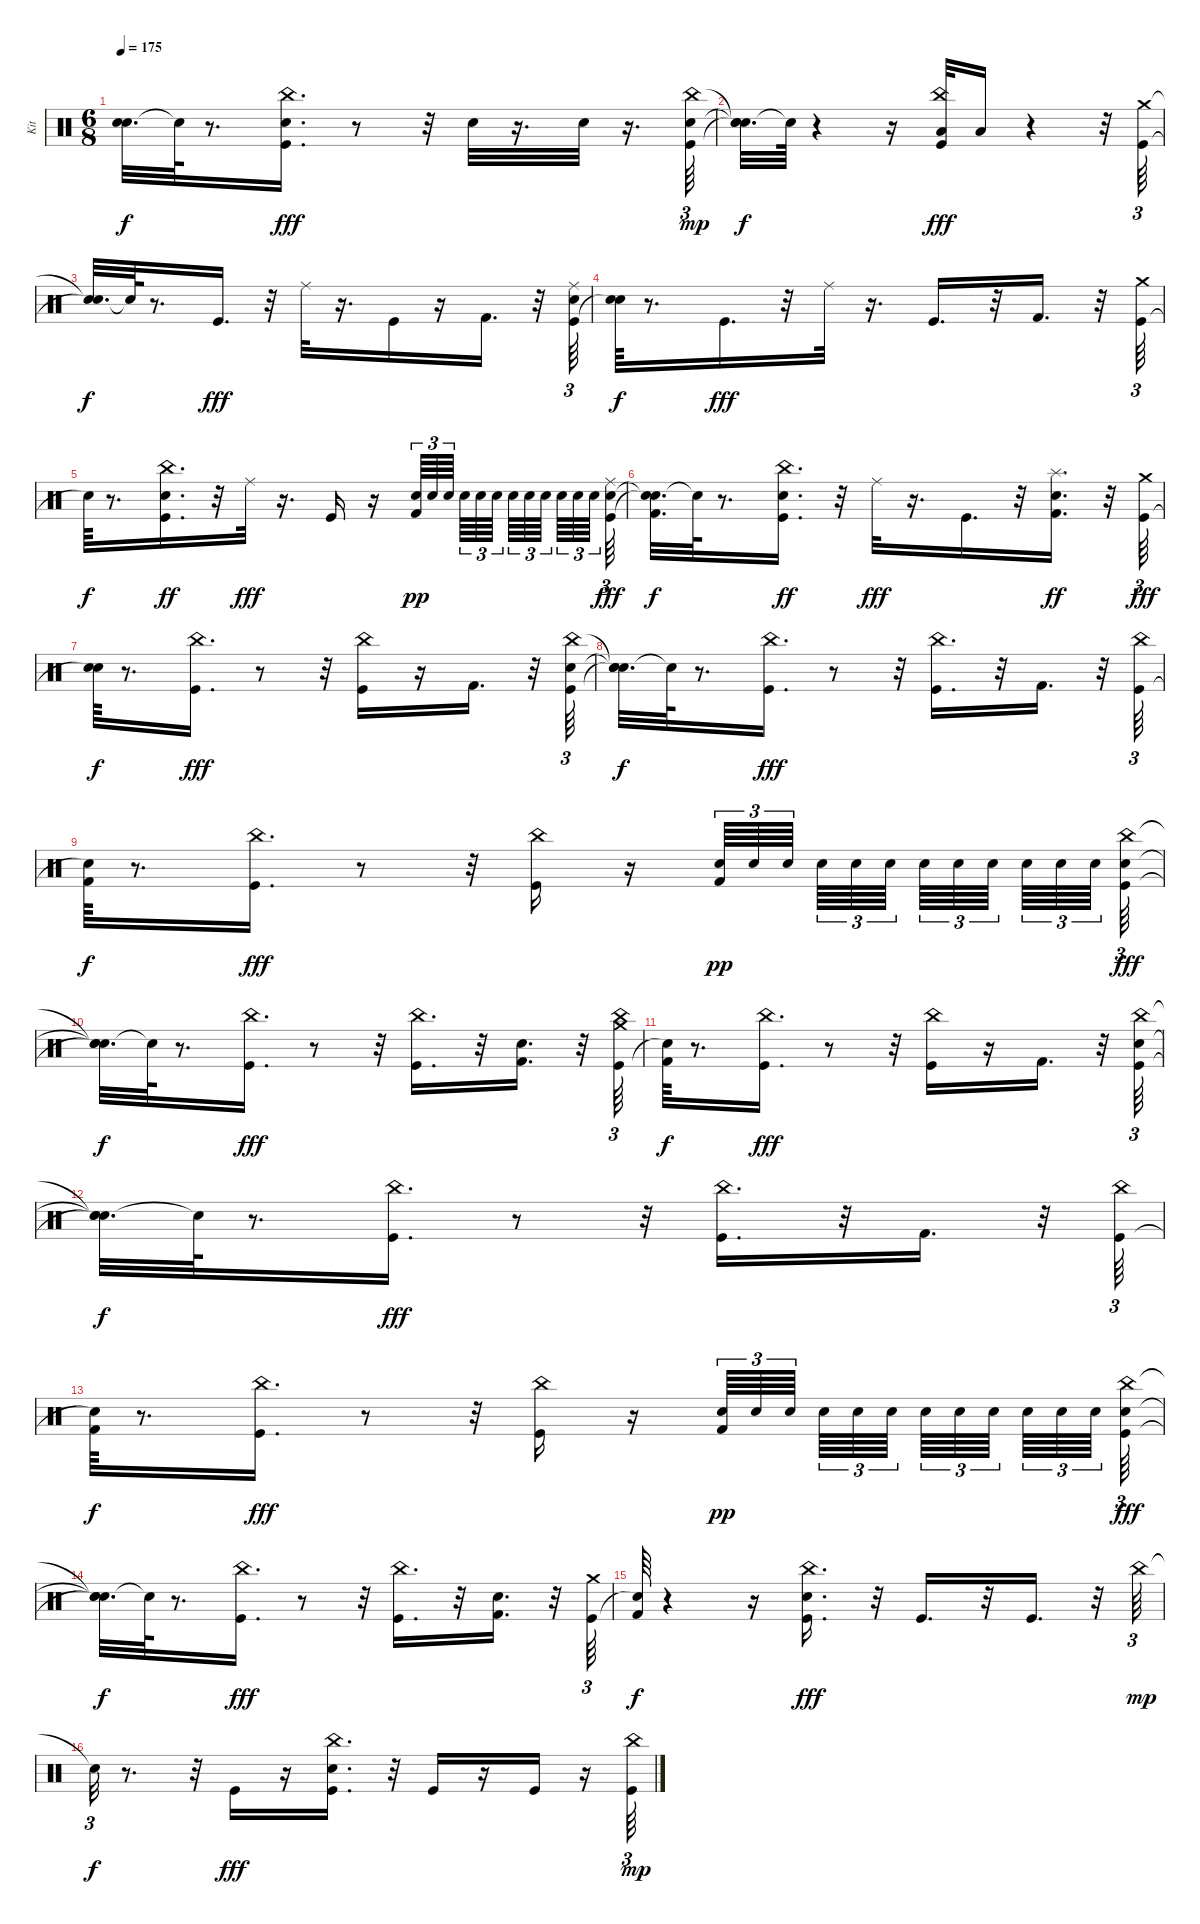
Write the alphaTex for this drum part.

\track ("Kit" "Kit") {instrument percussion}
\staff {score}
\articulation defaults
\ts (6 8)
\tempo 175
\clef neutral
\ks c
("Snare (hit)"{t} "Snare (hit)"{t}).32{d dy f} "Snare (hit)"{t}.64 r.8{d} ("Kick (hit)" "Snare (hit) 2" "China (hit)").16{d dy fff} r.8 r.32 "Snare (hit) 2".32 r.16{d} "Snare (hit) 2".32 r.16{d} ("Kick (hit)" "Snare (hit) 2" "China (hit)").64{tu (3 2) dy mp} |
("Snare (hit)"{t} "Snare (hit)"{t} "Snare (hit)"{t}).32{d dy f} "Snare (hit)"{t}.64 r.4 r.16 ("Kick (hit)" "Low Floor Tom (hit)" "China (hit)").32{dy fff} "Low Floor Tom (hit)".16 r.4 r.32 ("Kick (hit)" "Crash medium (hit)").64{tu (3 2)} |
("Snare (hit)"{t} "Snare (hit)"{t}).32{d dy f} "Snare (hit)"{t}.64 r.8{d} "Kick (hit)".16{d dy fff} r.32 "Ride (middle)".32 r.16{d} "Kick (hit)".16 r.16 "Kick (hit) 2".16{d} r.32 ("Kick (hit)" "Snare (hit) 2" "Ride (middle)").64{tu (3 2)} |
("Snare (hit)"{t} "Snare (hit) 2").64{dy f} r.8{d} "Kick (hit)".16{d dy fff} r.32 "Ride (middle)".32 r.16{d} "Kick (hit)".16{d} r.32 "Kick (hit) 2".16{d} r.32 ("Kick (hit)" "Crash medium (hit)").64{tu (3 2)} |
"Snare (hit)"{t}.64{dy f} r.8{d} ("Kick (hit)" "Snare (hit) 2" "China (hit)").16{d dy ff} r.32 "Ride (middle)".32{dy fff} r.16{d} "Kick (hit)".16 r.16 ("Kick (hit) 2" "Snare (hit) 2").64{tu (3 2) dy pp} "Snare (hit) 2".64{tu (3 2)} "Snare (hit) 2".64{tu (3 2) beam splitsecondary} "Snare (hit) 2".64{tu (3 2)} "Snare (hit) 2".64{tu (3 2)} "Snare (hit) 2".64{tu (3 2) beam splitsecondary} "Snare (hit) 2".64{tu (3 2)} "Snare (hit) 2".64{tu (3 2)} "Snare (hit) 2".64{tu (3 2) beam splitsecondary} "Snare (hit) 2".64{tu (3 2)} "Snare (hit) 2".64{tu (3 2)} "Snare (hit) 2".64{tu (3 2) beam splitsecondary} ("Kick (hit)" "Snare (hit) 2" "Ride (middle)").64{tu (3 2) dy fff} |
("Snare (hit)"{t} "Snare (hit)"{t} "Kick (hit) 2").32{d dy f} "Snare (hit)"{t}.64 r.8{d} ("Kick (hit)" "Snare (hit) 2" "China (hit)").16{d dy ff} r.32 "Ride (middle)".32{dy fff} r.16{d} "Kick (hit)".16{d} r.32 ("Kick (hit) 2" "Snare (hit) 2" "Splash (hit)").16{d dy ff} r.32 ("Kick (hit)" "Crash medium (hit)").64{tu (3 2) dy fff} |
("Snare (hit)"{t} "Snare (hit) 2").64{dy f} r.8{d} ("Kick (hit)" "China (hit)").16{d dy fff} r.8 r.32 ("Kick (hit)" "China (hit)").16 r.16 "Kick (hit) 2".16{d} r.32 ("Kick (hit)" "Snare (hit) 2" "China (hit)").64{tu (3 2)} |
("Snare (hit)"{t} "Snare (hit)"{t} "Snare (hit)"{t}).32{d dy f} "Snare (hit)"{t}.64 r.8{d} ("Kick (hit)" "China (hit)").16{d dy fff} r.8 r.32 ("Kick (hit)" "China (hit)").16{d} r.32 "Kick (hit) 2".16{d} r.32 ("Kick (hit)" "China (hit)").64{tu (3 2)} |
("Snare (hit)"{t} "Kick (hit) 2").64{dy f} r.8{d} ("Kick (hit)" "China (hit)").16{d dy fff} r.8 r.32 ("Kick (hit)" "China (hit)").16 r.16 ("Kick (hit) 2" "Snare (hit) 2").64{tu (3 2) dy pp} "Snare (hit) 2".64{tu (3 2)} "Snare (hit) 2".64{tu (3 2) beam splitsecondary} "Snare (hit) 2".64{tu (3 2)} "Snare (hit) 2".64{tu (3 2)} "Snare (hit) 2".64{tu (3 2) beam splitsecondary} "Snare (hit) 2".64{tu (3 2)} "Snare (hit) 2".64{tu (3 2)} "Snare (hit) 2".64{tu (3 2) beam splitsecondary} "Snare (hit) 2".64{tu (3 2)} "Snare (hit) 2".64{tu (3 2)} "Snare (hit) 2".64{tu (3 2) beam splitsecondary} ("Kick (hit)" "Snare (hit) 2" "China (hit)").64{tu (3 2) dy fff} |
("Snare (hit)"{t} "Snare (hit)"{t} "Snare (hit)"{t}).32{d dy f} "Snare (hit)"{t}.64 r.8{d} ("Kick (hit)" "China (hit)").16{d dy fff} r.8 r.32 ("Kick (hit)" "China (hit)").16{d} r.32 ("Kick (hit) 2" "Snare (hit) 2").16{d} r.32 ("Kick (hit)" "China (hit)" "Crash medium (hit)").64{tu (3 2)} |
("Snare (hit)"{t} "Kick (hit) 2").64{dy f} r.8{d} ("Kick (hit)" "China (hit)").16{d dy fff} r.8 r.32 ("Kick (hit)" "China (hit)").16 r.16 "Kick (hit) 2".16{d} r.32 ("Kick (hit)" "Snare (hit) 2" "China (hit)").64{tu (3 2)} |
("Snare (hit)"{t} "Snare (hit)"{t} "Snare (hit)"{t}).32{d dy f} "Snare (hit)"{t}.64 r.8{d} ("Kick (hit)" "China (hit)").16{d dy fff} r.8 r.32 ("Kick (hit)" "China (hit)").16{d} r.32 "Kick (hit) 2".16{d} r.32 ("Kick (hit)" "China (hit)").64{tu (3 2)} |
("Snare (hit)"{t} "Kick (hit) 2").64{dy f} r.8{d} ("Kick (hit)" "China (hit)").16{d dy fff} r.8 r.32 ("Kick (hit)" "China (hit)").16 r.16 ("Kick (hit) 2" "Snare (hit) 2").64{tu (3 2) dy pp} "Snare (hit) 2".64{tu (3 2)} "Snare (hit) 2".64{tu (3 2) beam splitsecondary} "Snare (hit) 2".64{tu (3 2)} "Snare (hit) 2".64{tu (3 2)} "Snare (hit) 2".64{tu (3 2) beam splitsecondary} "Snare (hit) 2".64{tu (3 2)} "Snare (hit) 2".64{tu (3 2)} "Snare (hit) 2".64{tu (3 2) beam splitsecondary} "Snare (hit) 2".64{tu (3 2)} "Snare (hit) 2".64{tu (3 2)} "Snare (hit) 2".64{tu (3 2) beam splitsecondary} ("Kick (hit)" "Snare (hit) 2" "China (hit)").64{tu (3 2) dy fff} |
("Snare (hit)"{t} "Snare (hit)"{t} "Snare (hit)"{t}).32{d dy f} "Snare (hit)"{t}.64 r.8{d} ("Kick (hit)" "China (hit)").16{d dy fff} r.8 r.32 ("Kick (hit)" "China (hit)").16{d} r.32 ("Kick (hit) 2" "Snare (hit) 2").16{d} r.32 ("Kick (hit)" "Crash medium (hit)").64{tu (3 2)} |
("Snare (hit)"{t} "Kick (hit) 2").64{dy f} r.4 r.16 ("Kick (hit)" "Snare (hit) 2" "China (hit)").16{d dy fff} r.32 "Kick (hit)".16{d} r.32 "Kick (hit)".16{d} r.32 "China (hit)".64{tu (3 2) dy mp} |
"Snare (hit)"{t}.32{tu (3 2) dy f} r.8{d} r.32 "Kick (hit)".16{dy fff} r.16 ("Kick (hit)" "Snare (hit) 2" "China (hit)").16{d} r.32 "Kick (hit)".16 r.16 "Kick (hit)".16 r.16 ("Kick (hit)" "China (hit)").64{tu (3 2) dy mp}
